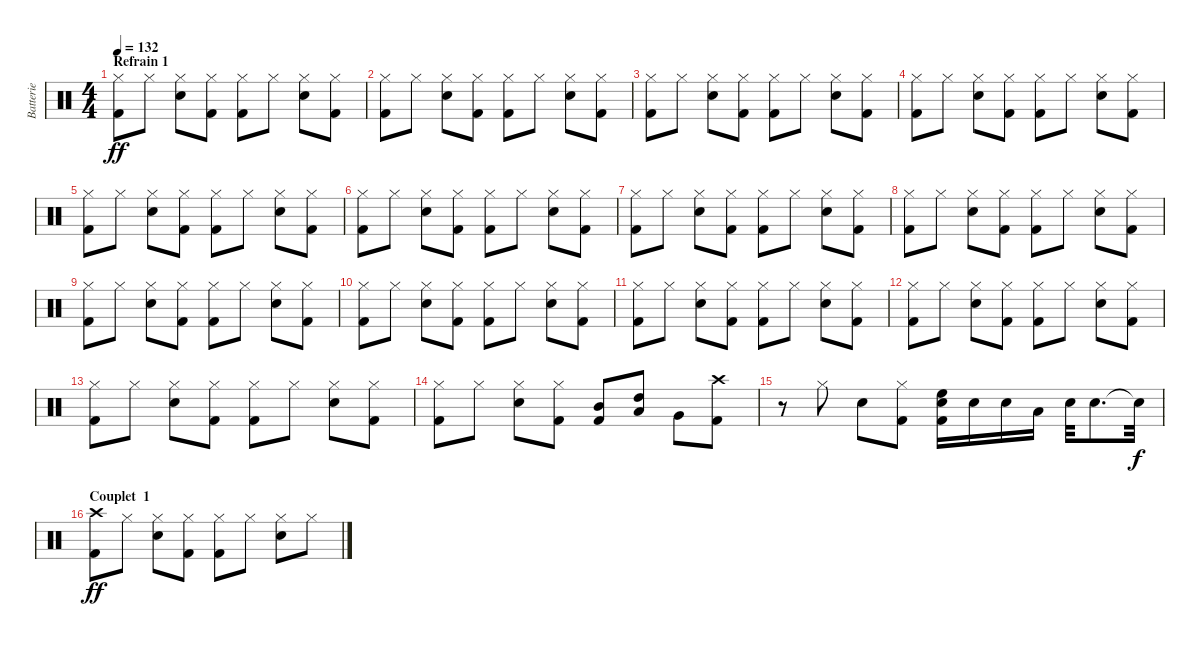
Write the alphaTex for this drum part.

\track ("Batterie" "Batterie") {instrument percussion}
\staff {score}
\articulation defaults
\ts (4 4)
\section ("" "Refrain 1")
\tempo 132
\clef neutral
\ks c
("Kick (hit) 2" "Hi-Hat (closed)").8{dy ff} "Hi-Hat (closed)".8 ("Snare (hit) 2" "Hi-Hat (closed)").8 ("Kick (hit) 2" "Hi-Hat (closed)").8 ("Kick (hit) 2" "Hi-Hat (closed)").8 "Hi-Hat (closed)".8 ("Snare (hit) 2" "Hi-Hat (closed)").8 ("Kick (hit) 2" "Hi-Hat (closed)").8 |
("Kick (hit) 2" "Hi-Hat (closed)").8 "Hi-Hat (closed)".8 ("Snare (hit) 2" "Hi-Hat (closed)").8 ("Kick (hit) 2" "Hi-Hat (closed)").8 ("Kick (hit) 2" "Hi-Hat (closed)").8 "Hi-Hat (closed)".8 ("Snare (hit) 2" "Hi-Hat (closed)").8 ("Kick (hit) 2" "Hi-Hat (closed)").8 |
("Kick (hit) 2" "Hi-Hat (closed)").8 "Hi-Hat (closed)".8 ("Snare (hit) 2" "Hi-Hat (closed)").8 ("Kick (hit) 2" "Hi-Hat (closed)").8 ("Kick (hit) 2" "Hi-Hat (closed)").8 "Hi-Hat (closed)".8 ("Snare (hit) 2" "Hi-Hat (closed)").8 ("Kick (hit) 2" "Hi-Hat (closed)").8 |
("Kick (hit) 2" "Hi-Hat (closed)").8 "Hi-Hat (closed)".8 ("Snare (hit) 2" "Hi-Hat (closed)").8 ("Kick (hit) 2" "Hi-Hat (closed)").8 ("Kick (hit) 2" "Hi-Hat (closed)").8 "Hi-Hat (closed)".8 ("Snare (hit) 2" "Hi-Hat (closed)").8 ("Kick (hit) 2" "Hi-Hat (closed)").8 |
("Kick (hit) 2" "Hi-Hat (closed)").8 "Hi-Hat (closed)".8 ("Snare (hit) 2" "Hi-Hat (closed)").8 ("Kick (hit) 2" "Hi-Hat (closed)").8 ("Kick (hit) 2" "Hi-Hat (closed)").8 "Hi-Hat (closed)".8 ("Snare (hit) 2" "Hi-Hat (closed)").8 ("Kick (hit) 2" "Hi-Hat (closed)").8 |
("Kick (hit) 2" "Hi-Hat (closed)").8 "Hi-Hat (closed)".8 ("Snare (hit) 2" "Hi-Hat (closed)").8 ("Kick (hit) 2" "Hi-Hat (closed)").8 ("Kick (hit) 2" "Hi-Hat (closed)").8 "Hi-Hat (closed)".8 ("Snare (hit) 2" "Hi-Hat (closed)").8 ("Kick (hit) 2" "Hi-Hat (closed)").8 |
("Kick (hit) 2" "Hi-Hat (closed)").8 "Hi-Hat (closed)".8 ("Snare (hit) 2" "Hi-Hat (closed)").8 ("Kick (hit) 2" "Hi-Hat (closed)").8 ("Kick (hit) 2" "Hi-Hat (closed)").8 "Hi-Hat (closed)".8 ("Snare (hit) 2" "Hi-Hat (closed)").8 ("Kick (hit) 2" "Hi-Hat (closed)").8 |
("Kick (hit) 2" "Hi-Hat (closed)").8 "Hi-Hat (closed)".8 ("Snare (hit) 2" "Hi-Hat (closed)").8 ("Kick (hit) 2" "Hi-Hat (closed)").8 ("Kick (hit) 2" "Hi-Hat (closed)").8 "Hi-Hat (closed)".8 ("Snare (hit) 2" "Hi-Hat (closed)").8 ("Kick (hit) 2" "Hi-Hat (closed)").8 |
("Kick (hit) 2" "Hi-Hat (closed)").8 "Hi-Hat (closed)".8 ("Snare (hit) 2" "Hi-Hat (closed)").8 ("Kick (hit) 2" "Hi-Hat (closed)").8 ("Kick (hit) 2" "Hi-Hat (closed)").8 "Hi-Hat (closed)".8 ("Snare (hit) 2" "Hi-Hat (closed)").8 ("Kick (hit) 2" "Hi-Hat (closed)").8 |
("Kick (hit) 2" "Hi-Hat (closed)").8 "Hi-Hat (closed)".8 ("Snare (hit) 2" "Hi-Hat (closed)").8 ("Kick (hit) 2" "Hi-Hat (closed)").8 ("Kick (hit) 2" "Hi-Hat (closed)").8 "Hi-Hat (closed)".8 ("Snare (hit) 2" "Hi-Hat (closed)").8 ("Kick (hit) 2" "Hi-Hat (closed)").8 |
("Kick (hit) 2" "Hi-Hat (closed)").8 "Hi-Hat (closed)".8 ("Snare (hit) 2" "Hi-Hat (closed)").8 ("Kick (hit) 2" "Hi-Hat (closed)").8 ("Kick (hit) 2" "Hi-Hat (closed)").8 "Hi-Hat (closed)".8 ("Snare (hit) 2" "Hi-Hat (closed)").8 ("Kick (hit) 2" "Hi-Hat (closed)").8 |
("Kick (hit) 2" "Hi-Hat (closed)").8 "Hi-Hat (closed)".8 ("Snare (hit) 2" "Hi-Hat (closed)").8 ("Kick (hit) 2" "Hi-Hat (closed)").8 ("Kick (hit) 2" "Hi-Hat (closed)").8 "Hi-Hat (closed)".8 ("Snare (hit) 2" "Hi-Hat (closed)").8 ("Kick (hit) 2" "Hi-Hat (closed)").8 |
("Kick (hit) 2" "Hi-Hat (closed)").8 "Hi-Hat (closed)".8 ("Snare (hit) 2" "Hi-Hat (closed)").8 ("Kick (hit) 2" "Hi-Hat (closed)").8 ("Kick (hit) 2" "Hi-Hat (closed)").8 "Hi-Hat (closed)".8 ("Snare (hit) 2" "Hi-Hat (closed)").8 ("Kick (hit) 2" "Hi-Hat (closed)").8 |
("Kick (hit) 2" "Hi-Hat (closed)").8 "Hi-Hat (closed)".8 ("Snare (hit) 2" "Hi-Hat (closed)").8 ("Kick (hit) 2" "Hi-Hat (closed)").8 ("Kick (hit) 2" "Mid Tom (hit)").8 ("Low Tom (hit)" "High Tom (hit)").8 "Very Low Tom (hit)".8 ("Kick (hit) 2" "Crash high (hit)").8 |
r.8 "Hi-Hat (closed)".8 "Snare (hit) 2".8 ("Kick (hit) 2" "Hi-Hat (closed)").8 ("Kick (hit) 2" "Snare (hit) 2" "High Floor Tom (hit)").16 "Snare (hit) 2".16 "Snare (hit) 2".16 "Low Tom (hit)".16 "Snare (hit) 2".32 "Snare (hit) 2".8{d} "Snare (hit) 2"{t}.32{dy f} |
\section ("" "Couplet  1")
("Kick (hit) 2" "Crash high (hit)").8{dy ff} "Hi-Hat (closed)".8 ("Snare (hit) 2" "Hi-Hat (closed)").8 ("Kick (hit) 2" "Hi-Hat (closed)").8 ("Kick (hit) 2" "Hi-Hat (closed)").8 "Hi-Hat (closed)".8 ("Snare (hit) 2" "Hi-Hat (closed)").8 "Hi-Hat (closed)".8
